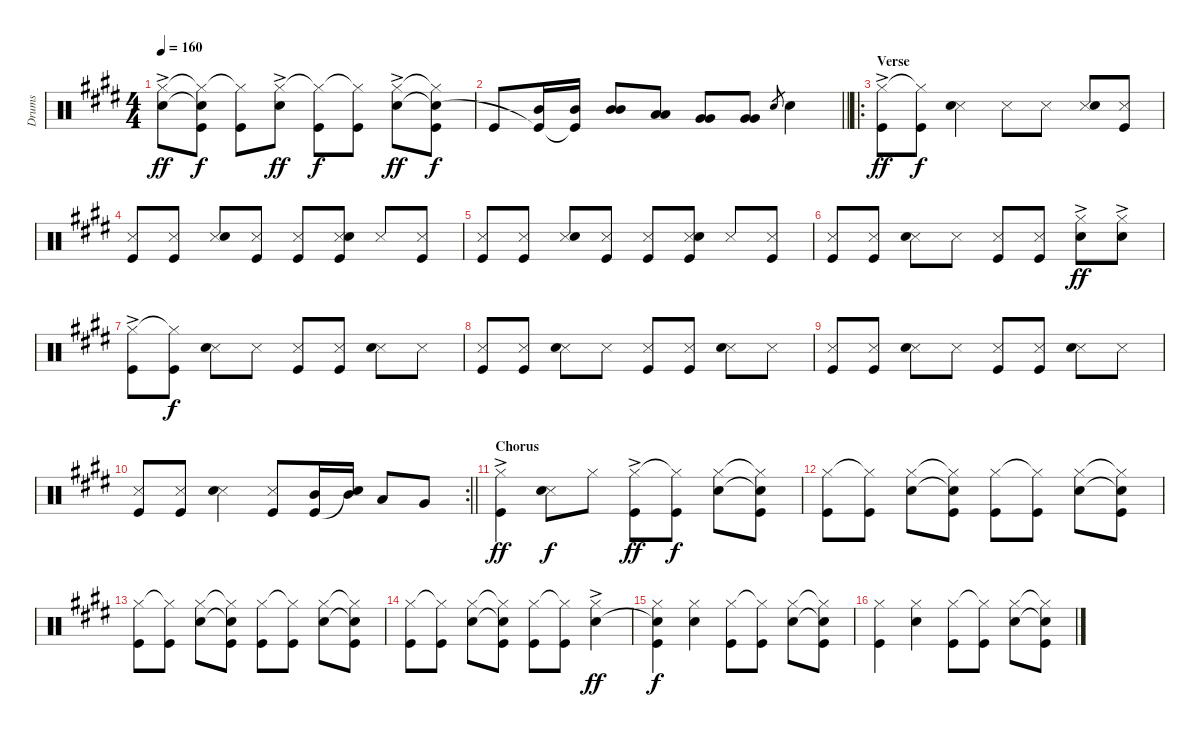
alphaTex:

\track ("Drums" "Drums") {instrument percussion}
\staff {score}
\articulation defaults
\ts (4 4)
\tempo 160
\clef neutral
\ks e
("Hi-Hat (closed)"{ac} "Snare (hit) 2").8{dy ff} ("Hi-Hat (closed)"{t} "Snare (hit)"{t} "Kick (hit)").8{dy f} ("Hi-Hat (closed)"{t} "Kick (hit)").8 ("Hi-Hat (closed)"{ac} "Snare (hit) 2").8{dy ff} ("Hi-Hat (closed)"{t} "Kick (hit)").8{dy f} ("Hi-Hat (closed)"{t} "Kick (hit)").8 ("Hi-Hat (closed)"{ac} "Snare (hit) 2").8{dy ff} ("Hi-Hat (closed)"{t} "Snare (hit) 2"{t} "Kick (hit)").8{dy f} |
\barLineRight lightlight "Kick (hit)".8
("Mid Tom (hit)" "Kick (hit)"{t}).16 ("Mid Tom (hit)" "Kick (hit)"{t}).16 ("Mid Tom (hit)" "Mid Tom (hit)").8 ("Low Tom (hit)" "Low Tom (hit)").8 ("Very Low Tom (hit)" "Very Low Tom (hit)").8 ("Very Low Tom (hit)" "Very Low Tom (hit)").8 "Snare (hit) 2".8{gr} "Snare (hit) 2".4 |
\ro
\section ("" "Verse")
("Hi-Hat (closed)"{ac} "Kick (hit)").8{dy ff} ("Hi-Hat (closed)"{t} "Kick (hit)").8{dy f} ("Snare (side stick) 3" "Snare (hit) 2").4 "Snare (side stick) 3".8 "Snare (side stick) 3".8 ("Snare (side stick) 3" "Snare (hit) 2").8 ("Snare (side stick) 3" "Kick (hit)").8 |
("Snare (side stick) 3" "Kick (hit)").8 ("Snare (side stick) 3" "Kick (hit)").8 ("Snare (side stick) 3" "Snare (hit) 2").8 ("Snare (side stick) 3" "Kick (hit)").8 ("Snare (side stick) 3" "Kick (hit)").8 ("Snare (side stick) 3" "Snare (hit) 2" "Kick (hit)").8 "Snare (side stick) 3".8 ("Snare (side stick) 3" "Kick (hit)").8 |
("Snare (side stick) 3" "Kick (hit)").8 ("Snare (side stick) 3" "Kick (hit)").8 ("Snare (side stick) 3" "Snare (hit) 2").8 ("Snare (side stick) 3" "Kick (hit)").8 ("Snare (side stick) 3" "Kick (hit)").8 ("Snare (side stick) 3" "Snare (hit) 2" "Kick (hit)").8 "Snare (side stick) 3".8 ("Snare (side stick) 3" "Kick (hit)").8 |
("Snare (side stick) 3" "Kick (hit)").8 ("Snare (side stick) 3" "Kick (hit)").8 ("Snare (side stick) 3" "Snare (hit) 2").8 "Snare (side stick) 3".8 ("Snare (side stick) 3" "Kick (hit)").8 ("Snare (side stick) 3" "Kick (hit)").8 ("Hi-Hat (closed)"{ac} "Snare (hit) 2").8{dy ff} ("Hi-Hat (closed)"{ac} "Snare (hit) 2").8 |
("Hi-Hat (closed)"{ac} "Kick (hit)").8 ("Hi-Hat (closed)"{t} "Kick (hit)").8{dy f} ("Snare (side stick) 3" "Snare (hit) 2").8 "Snare (side stick) 3".8 ("Snare (side stick) 3" "Kick (hit)").8 ("Snare (side stick) 3" "Kick (hit)").8 ("Snare (side stick) 3" "Snare (hit) 2").8 "Snare (side stick) 3".8 |
("Snare (side stick) 3" "Kick (hit)").8 ("Snare (side stick) 3" "Kick (hit)").8 ("Snare (side stick) 3" "Snare (hit) 2").8 "Snare (side stick) 3".8 ("Snare (side stick) 3" "Kick (hit)").8 ("Snare (side stick) 3" "Kick (hit)").8 ("Snare (side stick) 3" "Snare (hit) 2").8 "Snare (side stick) 3".8 |
("Snare (side stick) 3" "Kick (hit)").8 ("Snare (side stick) 3" "Kick (hit)").8 ("Snare (side stick) 3" "Snare (hit) 2").8 "Snare (side stick) 3".8 ("Snare (side stick) 3" "Kick (hit)").8 ("Snare (side stick) 3" "Kick (hit)").8 ("Snare (side stick) 3" "Snare (hit) 2").8 "Snare (side stick) 3".8 |
\rc 2
\barLineRight lightlight
("Snare (side stick) 3" "Kick (hit)").8 ("Snare (side stick) 3" "Kick (hit)").8 ("Snare (side stick) 3" "Snare (hit) 2").4 ("Snare (side stick) 3" "Kick (hit)").8 ("Mid Tom (hit)" "Kick (hit)").16 ("Mid Tom (hit)" "Snare (hit) 2"{t}).16 "Low Tom (hit)".8 "Very Low Tom (hit)".8 |
\section ("" "Chorus")
("Hi-Hat (closed)"{ac} "Kick (hit)").4{dy ff} ("Snare (side stick) 3" "Snare (hit) 2").8{dy f} "Hi-Hat (closed)".8 ("Hi-Hat (closed)"{ac} "Kick (hit)").8{dy ff} ("Hi-Hat (closed)"{t} "Kick (hit)").8{dy f} ("Hi-Hat (closed)" "Snare (hit) 2").8 ("Hi-Hat (closed)"{t} "Snare (hit) 2"{t} "Kick (hit)").8 |
("Hi-Hat (closed)" "Kick (hit)").8 ("Hi-Hat (closed)"{t} "Kick (hit)").8 ("Hi-Hat (closed)" "Snare (hit) 2").8 ("Hi-Hat (closed)"{t} "Snare (hit) 2"{t} "Kick (hit)").8 ("Hi-Hat (closed)" "Kick (hit)").8 ("Hi-Hat (closed)"{t} "Kick (hit)").8 ("Hi-Hat (closed)" "Snare (hit) 2").8 ("Hi-Hat (closed)"{t} "Snare (hit) 2"{t} "Kick (hit)").8 |
("Hi-Hat (closed)" "Kick (hit)").8 ("Hi-Hat (closed)"{t} "Kick (hit)").8 ("Hi-Hat (closed)" "Snare (hit) 2").8 ("Hi-Hat (closed)"{t} "Snare (hit) 2"{t} "Kick (hit)").8 ("Hi-Hat (closed)" "Kick (hit)").8 ("Hi-Hat (closed)"{t} "Kick (hit)").8 ("Hi-Hat (closed)" "Snare (hit) 2").8 ("Hi-Hat (closed)"{t} "Snare (hit) 2"{t} "Kick (hit)").8 |
("Hi-Hat (closed)" "Kick (hit)").8 ("Hi-Hat (closed)"{t} "Kick (hit)").8 ("Hi-Hat (closed)" "Snare (hit) 2").8 ("Hi-Hat (closed)"{t} "Snare (hit) 2"{t} "Kick (hit)").8 ("Hi-Hat (closed)" "Kick (hit)").8 ("Hi-Hat (closed)"{t} "Kick (hit)").8 ("Hi-Hat (closed)"{ac} "Snare (hit) 2").4{dy ff} |
("Hi-Hat (closed)" "Snare (hit)"{t} "Kick (hit)").4{dy f} ("Hi-Hat (closed)" "Snare (hit) 2").4 ("Hi-Hat (closed)" "Kick (hit)").8 ("Hi-Hat (closed)"{t} "Kick (hit)").8 ("Hi-Hat (closed)" "Snare (hit) 2").8 ("Hi-Hat (closed)"{t} "Snare (hit) 2"{t} "Kick (hit)").8 |
("Hi-Hat (closed)" "Kick (hit)").4 ("Hi-Hat (closed)" "Snare (hit) 2").4 ("Hi-Hat (closed)" "Kick (hit)").8 ("Hi-Hat (closed)"{t} "Kick (hit)").8 ("Hi-Hat (closed)" "Snare (hit) 2").8 ("Hi-Hat (closed)"{t} "Snare (hit) 2"{t} "Kick (hit)").8
